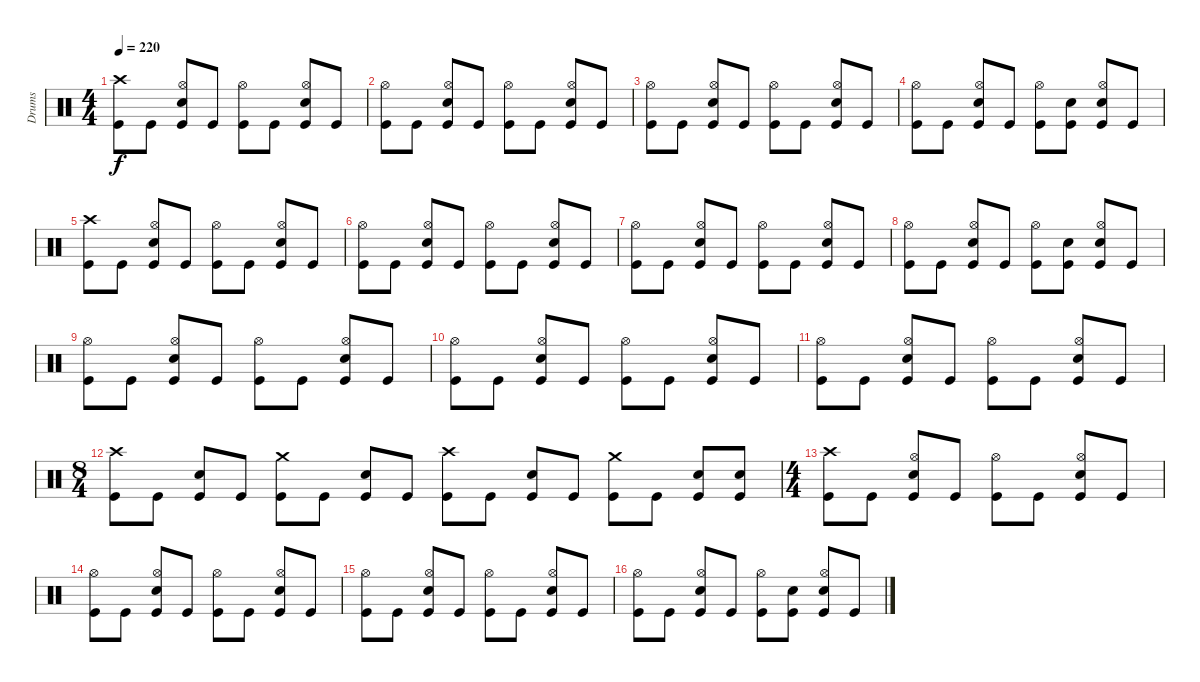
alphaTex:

\track ("Drums" "Drums") {instrument percussion}
\staff {score}
\articulation defaults
\ts (4 4)
\tempo 220
\clef neutral
\ks c
("Crash high (hit)" "Kick (hit)").8{dy f} "Kick (hit)".8 ("Hi-Hat (open)" "Electric Snare (hit)" "Kick (hit)").8 "Kick (hit)".8 ("Hi-Hat (open)" "Kick (hit)").8 "Kick (hit)".8 ("Hi-Hat (open)" "Electric Snare (hit)" "Kick (hit)").8 "Kick (hit)".8 |
("Hi-Hat (open)" "Kick (hit)").8 "Kick (hit)".8 ("Hi-Hat (open)" "Electric Snare (hit)" "Kick (hit)").8 "Kick (hit)".8 ("Hi-Hat (open)" "Kick (hit)").8 "Kick (hit)".8 ("Hi-Hat (open)" "Electric Snare (hit)" "Kick (hit)").8 "Kick (hit)".8 |
("Hi-Hat (open)" "Kick (hit)").8 "Kick (hit)".8 ("Hi-Hat (open)" "Electric Snare (hit)" "Kick (hit)").8 "Kick (hit)".8 ("Hi-Hat (open)" "Kick (hit)").8 "Kick (hit)".8 ("Hi-Hat (open)" "Electric Snare (hit)" "Kick (hit)").8 "Kick (hit)".8 |
("Hi-Hat (open)" "Kick (hit)").8 "Kick (hit)".8 ("Hi-Hat (open)" "Electric Snare (hit)" "Kick (hit)").8 "Kick (hit)".8 ("Hi-Hat (open)" "Kick (hit)").8 ("Electric Snare (hit)" "Kick (hit)").8 ("Hi-Hat (open)" "Electric Snare (hit)" "Kick (hit)").8 "Kick (hit)".8 |
("Crash high (hit)" "Kick (hit)").8 "Kick (hit)".8 ("Hi-Hat (open)" "Electric Snare (hit)" "Kick (hit)").8 "Kick (hit)".8 ("Hi-Hat (open)" "Kick (hit)").8 "Kick (hit)".8 ("Hi-Hat (open)" "Electric Snare (hit)" "Kick (hit)").8 "Kick (hit)".8 |
("Hi-Hat (open)" "Kick (hit)").8 "Kick (hit)".8 ("Hi-Hat (open)" "Electric Snare (hit)" "Kick (hit)").8 "Kick (hit)".8 ("Hi-Hat (open)" "Kick (hit)").8 "Kick (hit)".8 ("Hi-Hat (open)" "Electric Snare (hit)" "Kick (hit)").8 "Kick (hit)".8 |
("Hi-Hat (open)" "Kick (hit)").8 "Kick (hit)".8 ("Hi-Hat (open)" "Electric Snare (hit)" "Kick (hit)").8 "Kick (hit)".8 ("Hi-Hat (open)" "Kick (hit)").8 "Kick (hit)".8 ("Hi-Hat (open)" "Electric Snare (hit)" "Kick (hit)").8 "Kick (hit)".8 |
("Hi-Hat (open)" "Kick (hit)").8 "Kick (hit)".8 ("Hi-Hat (open)" "Electric Snare (hit)" "Kick (hit)").8 "Kick (hit)".8 ("Hi-Hat (open)" "Kick (hit)").8 ("Electric Snare (hit)" "Kick (hit)").8 ("Hi-Hat (open)" "Electric Snare (hit)" "Kick (hit)").8 "Kick (hit)".8 |
("Hi-Hat (open)" "Kick (hit)").8 "Kick (hit)".8 ("Hi-Hat (open)" "Electric Snare (hit)" "Kick (hit)").8 "Kick (hit)".8 ("Hi-Hat (open)" "Kick (hit)").8 "Kick (hit)".8 ("Hi-Hat (open)" "Electric Snare (hit)" "Kick (hit)").8 "Kick (hit)".8 |
("Hi-Hat (open)" "Kick (hit)").8 "Kick (hit)".8 ("Hi-Hat (open)" "Electric Snare (hit)" "Kick (hit)").8 "Kick (hit)".8 ("Hi-Hat (open)" "Kick (hit)").8 "Kick (hit)".8 ("Hi-Hat (open)" "Electric Snare (hit)" "Kick (hit)").8 "Kick (hit)".8 |
("Hi-Hat (open)" "Kick (hit)").8 "Kick (hit)".8 ("Hi-Hat (open)" "Electric Snare (hit)" "Kick (hit)").8 "Kick (hit)".8 ("Hi-Hat (open)" "Kick (hit)").8 "Kick (hit)".8 ("Hi-Hat (open)" "Electric Snare (hit)" "Kick (hit)").8 "Kick (hit)".8 |
\ts (8 4)
("Crash high (hit)" "Kick (hit)").8 "Kick (hit)".8 ("Electric Snare (hit)" "Kick (hit)").8 "Kick (hit)".8 ("Crash medium (hit)" "Kick (hit)").8 "Kick (hit)".8 ("Electric Snare (hit)" "Kick (hit)").8 "Kick (hit)".8 ("Crash high (hit)" "Kick (hit)").8 "Kick (hit)".8 ("Electric Snare (hit)" "Kick (hit)").8 "Kick (hit)".8 ("Crash medium (hit)" "Kick (hit)").8 "Kick (hit)".8 ("Electric Snare (hit)" "Kick (hit)").8 ("Electric Snare (hit)" "Kick (hit)").8 |
\ts (4 4)
("Crash high (hit)" "Kick (hit)").8 "Kick (hit)".8 ("Hi-Hat (open)" "Electric Snare (hit)" "Kick (hit)").8 "Kick (hit)".8 ("Hi-Hat (open)" "Kick (hit)").8 "Kick (hit)".8 ("Hi-Hat (open)" "Electric Snare (hit)" "Kick (hit)").8 "Kick (hit)".8 |
("Hi-Hat (open)" "Kick (hit)").8 "Kick (hit)".8 ("Hi-Hat (open)" "Electric Snare (hit)" "Kick (hit)").8 "Kick (hit)".8 ("Hi-Hat (open)" "Kick (hit)").8 "Kick (hit)".8 ("Hi-Hat (open)" "Electric Snare (hit)" "Kick (hit)").8 "Kick (hit)".8 |
("Hi-Hat (open)" "Kick (hit)").8 "Kick (hit)".8 ("Hi-Hat (open)" "Electric Snare (hit)" "Kick (hit)").8 "Kick (hit)".8 ("Hi-Hat (open)" "Kick (hit)").8 "Kick (hit)".8 ("Hi-Hat (open)" "Electric Snare (hit)" "Kick (hit)").8 "Kick (hit)".8 |
("Hi-Hat (open)" "Kick (hit)").8 "Kick (hit)".8 ("Hi-Hat (open)" "Electric Snare (hit)" "Kick (hit)").8 "Kick (hit)".8 ("Hi-Hat (open)" "Kick (hit)").8 ("Electric Snare (hit)" "Kick (hit)").8 ("Hi-Hat (open)" "Electric Snare (hit)" "Kick (hit)").8 "Kick (hit)".8
